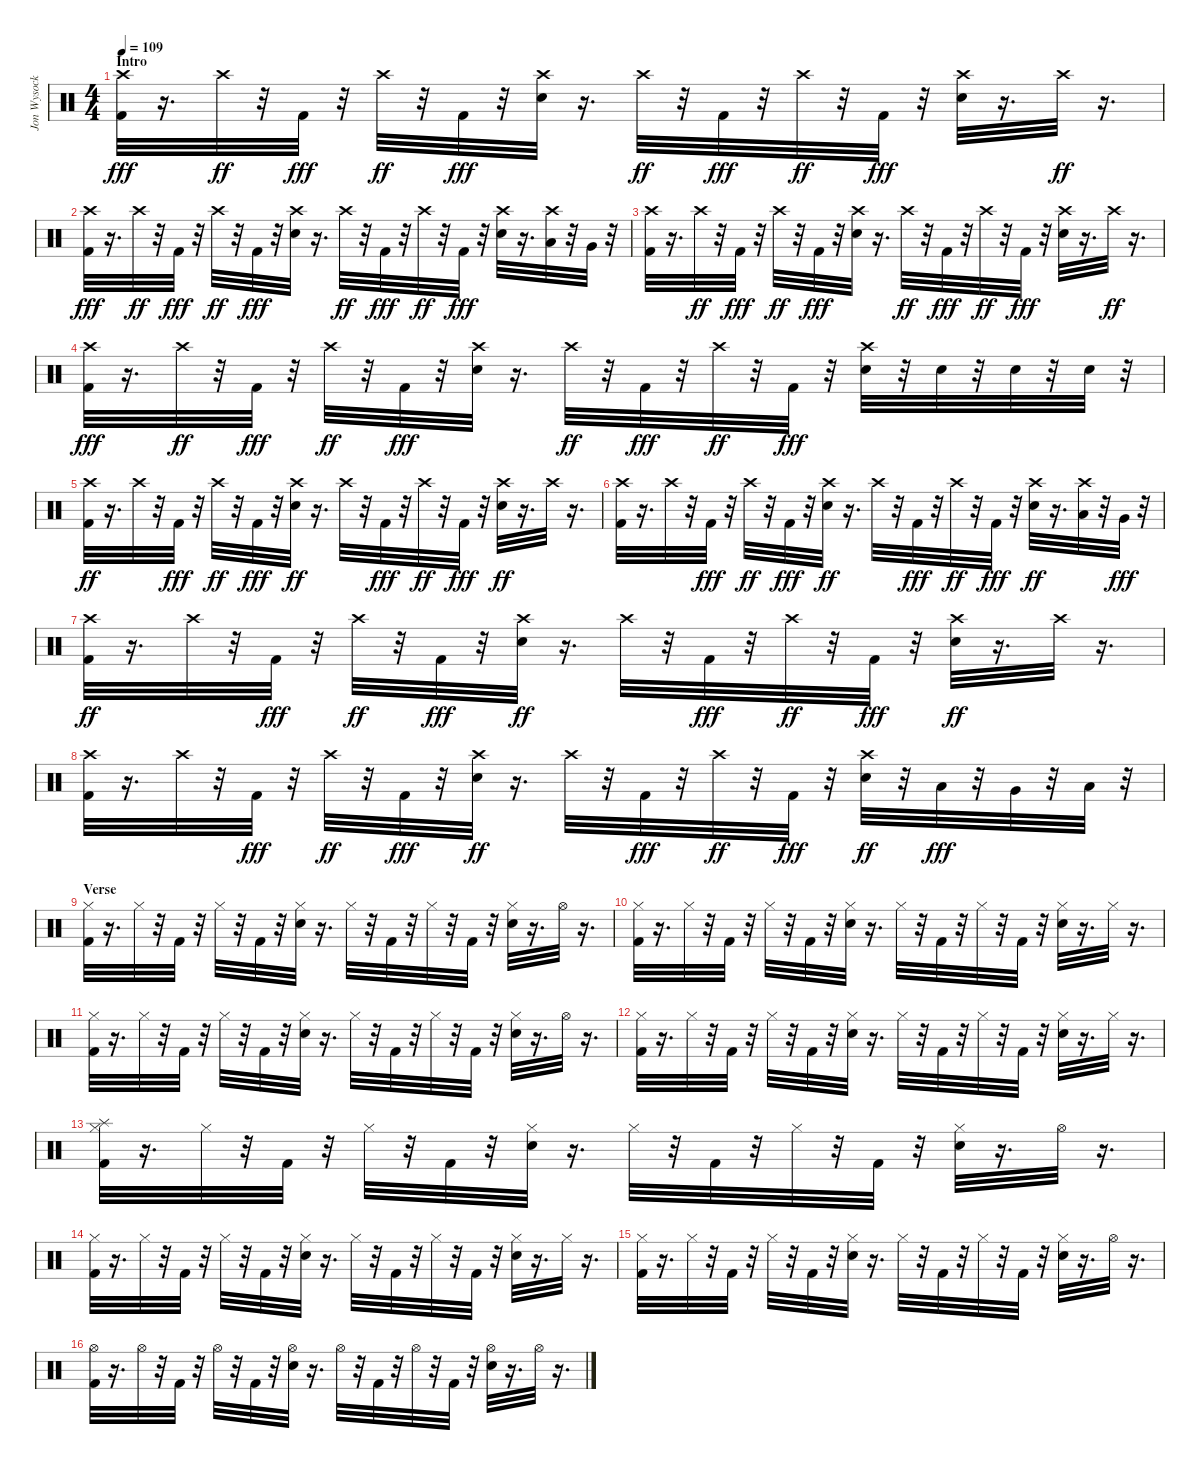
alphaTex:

\track ("Jon Wysocki - Drums" "Jon Wysock") {instrument percussion}
\staff {score}
\articulation defaults
\ts (4 4)
\section ("" "Intro")
\tempo 109
\clef neutral
\ks c
("Crash high (hit)" "Kick (hit) 2").32{dy fff} r.16{d} "Crash high (hit)".32{dy ff} r.32 "Kick (hit) 2".32{dy fff} r.32 "Crash high (hit)".32{dy ff} r.32 "Kick (hit) 2".32{dy fff} r.32 ("Crash high (hit)" "Electric Snare (hit)").32 r.16{d} "Crash high (hit)".32{dy ff} r.32 "Kick (hit) 2".32{dy fff} r.32 "Crash high (hit)".32{dy ff} r.32 "Kick (hit) 2".32{dy fff} r.32 ("Crash high (hit)" "Electric Snare (hit)").32 r.16{d} "Crash high (hit)".32{dy ff} r.16{d} |
("Crash high (hit)" "Kick (hit) 2").32{dy fff} r.16{d} "Crash high (hit)".32{dy ff} r.32 "Kick (hit) 2".32{dy fff} r.32 "Crash high (hit)".32{dy ff} r.32 "Kick (hit) 2".32{dy fff} r.32 ("Crash high (hit)" "Electric Snare (hit)").32 r.16{d} "Crash high (hit)".32{dy ff} r.32 "Kick (hit) 2".32{dy fff} r.32 "Crash high (hit)".32{dy ff} r.32 "Kick (hit) 2".32{dy fff} r.32 ("Crash high (hit)" "Electric Snare (hit)").32 r.16{d} ("Crash high (hit)" "Low Tom (hit)").32 r.32 "Very Low Tom (hit)".32 r.32 |
("Crash high (hit)" "Kick (hit) 2").32 r.16{d} "Crash high (hit)".32{dy ff} r.32 "Kick (hit) 2".32{dy fff} r.32 "Crash high (hit)".32{dy ff} r.32 "Kick (hit) 2".32{dy fff} r.32 ("Crash high (hit)" "Electric Snare (hit)").32 r.16{d} "Crash high (hit)".32{dy ff} r.32 "Kick (hit) 2".32{dy fff} r.32 "Crash high (hit)".32{dy ff} r.32 "Kick (hit) 2".32{dy fff} r.32 ("Crash high (hit)" "Electric Snare (hit)").32 r.16{d} "Crash high (hit)".32{dy ff} r.16{d} |
("Crash high (hit)" "Kick (hit) 2").32{dy fff} r.16{d} "Crash high (hit)".32{dy ff} r.32 "Kick (hit) 2".32{dy fff} r.32 "Crash high (hit)".32{dy ff} r.32 "Kick (hit) 2".32{dy fff} r.32 ("Crash high (hit)" "Electric Snare (hit)").32 r.16{d} "Crash high (hit)".32{dy ff} r.32 "Kick (hit) 2".32{dy fff} r.32 "Crash high (hit)".32{dy ff} r.32 "Kick (hit) 2".32{dy fff} r.32 ("Crash high (hit)" "Electric Snare (hit)").32 r.32 "Electric Snare (hit)".32 r.32 "Electric Snare (hit)".32 r.32 "Electric Snare (hit)".32 r.32 |
("Kick (hit) 2" "Crash high (hit)").32{dy ff} r.16{d} "Crash high (hit)".32 r.32 "Kick (hit) 2".32{dy fff} r.32 "Crash high (hit)".32{dy ff} r.32 "Kick (hit) 2".32{dy fff} r.32 ("Electric Snare (hit)" "Crash high (hit)").32{dy ff} r.16{d} "Crash high (hit)".32 r.32 "Kick (hit) 2".32{dy fff} r.32 "Crash high (hit)".32{dy ff} r.32 "Kick (hit) 2".32{dy fff} r.32 ("Electric Snare (hit)" "Crash high (hit)").32{dy ff} r.16{d} "Crash high (hit)".32 r.16{d} |
("Kick (hit) 2" "Crash high (hit)").32 r.16{d} "Crash high (hit)".32 r.32 "Kick (hit) 2".32{dy fff} r.32 "Crash high (hit)".32{dy ff} r.32 "Kick (hit) 2".32{dy fff} r.32 ("Electric Snare (hit)" "Crash high (hit)").32{dy ff} r.16{d} "Crash high (hit)".32 r.32 "Kick (hit) 2".32{dy fff} r.32 "Crash high (hit)".32{dy ff} r.32 "Kick (hit) 2".32{dy fff} r.32 ("Electric Snare (hit)" "Crash high (hit)").32{dy ff} r.16{d} ("Low Tom (hit)" "Crash high (hit)").32 r.32 "Very Low Tom (hit)".32{dy fff} r.32 |
("Kick (hit) 2" "Crash high (hit)").32{dy ff} r.16{d} "Crash high (hit)".32 r.32 "Kick (hit) 2".32{dy fff} r.32 "Crash high (hit)".32{dy ff} r.32 "Kick (hit) 2".32{dy fff} r.32 ("Electric Snare (hit)" "Crash high (hit)").32{dy ff} r.16{d} "Crash high (hit)".32 r.32 "Kick (hit) 2".32{dy fff} r.32 "Crash high (hit)".32{dy ff} r.32 "Kick (hit) 2".32{dy fff} r.32 ("Electric Snare (hit)" "Crash high (hit)").32{dy ff} r.16{d} "Crash high (hit)".32 r.16{d} |
("Kick (hit) 2" "Crash high (hit)").32 r.16{d} "Crash high (hit)".32 r.32 "Kick (hit) 2".32{dy fff} r.32 "Crash high (hit)".32{dy ff} r.32 "Kick (hit) 2".32{dy fff} r.32 ("Electric Snare (hit)" "Crash high (hit)").32{dy ff} r.16{d} "Crash high (hit)".32 r.32 "Kick (hit) 2".32{dy fff} r.32 "Crash high (hit)".32{dy ff} r.32 "Kick (hit) 2".32{dy fff} r.32 ("Electric Snare (hit)" "Crash high (hit)").32{dy ff} r.32 "Low Tom (hit)".32{dy fff} r.32 "Very Low Tom (hit)".32 r.32 "Low Floor Tom (hit)".32 r.32 |
\section ("" "Verse")
("Hi-Hat (closed)" "Kick (hit) 2").32 r.16{d} "Hi-Hat (closed)".32 r.32 "Kick (hit) 2".32 r.32 "Hi-Hat (closed)".32 r.32 "Kick (hit) 2".32 r.32 ("Hi-Hat (closed)" "Electric Snare (hit)").32 r.16{d} "Hi-Hat (closed)".32 r.32 "Kick (hit) 2".32 r.32 "Hi-Hat (closed)".32 r.32 "Kick (hit) 2".32 r.32 ("Hi-Hat (closed)" "Electric Snare (hit)").32 r.16{d} "Hi-Hat (open)".32 r.16{d} |
("Hi-Hat (closed)" "Kick (hit) 2").32 r.16{d} "Hi-Hat (closed)".32 r.32 "Kick (hit) 2".32 r.32 "Hi-Hat (closed)".32 r.32 "Kick (hit) 2".32 r.32 ("Hi-Hat (closed)" "Electric Snare (hit)").32 r.16{d} "Hi-Hat (closed)".32 r.32 "Kick (hit) 2".32 r.32 "Hi-Hat (closed)".32 r.32 "Kick (hit) 2".32 r.32 ("Hi-Hat (closed)" "Electric Snare (hit)").32 r.16{d} "Hi-Hat (closed)".32 r.16{d} |
("Kick (hit) 2" "Hi-Hat (closed)").32 r.16{d} "Hi-Hat (closed)".32 r.32 "Kick (hit) 2".32 r.32 "Hi-Hat (closed)".32 r.32 "Kick (hit) 2".32 r.32 ("Electric Snare (hit)" "Hi-Hat (closed)").32 r.16{d} "Hi-Hat (closed)".32 r.32 "Kick (hit) 2".32 r.32 "Hi-Hat (closed)".32 r.32 "Kick (hit) 2".32 r.32 ("Electric Snare (hit)" "Hi-Hat (closed)").32 r.16{d} "Hi-Hat (open)".32 r.16{d} |
("Kick (hit) 2" "Hi-Hat (closed)").32 r.16{d} "Hi-Hat (closed)".32 r.32 "Kick (hit) 2".32 r.32 "Hi-Hat (closed)".32 r.32 "Kick (hit) 2".32 r.32 ("Electric Snare (hit)" "Hi-Hat (closed)").32 r.16{d} "Hi-Hat (closed)".32 r.32 "Kick (hit) 2".32 r.32 "Hi-Hat (closed)".32 r.32 "Kick (hit) 2".32 r.32 ("Electric Snare (hit)" "Hi-Hat (closed)").32 r.16{d} "Hi-Hat (closed)".32 r.16{d} |
("Splash (hit)" "Kick (hit) 2" "Hi-Hat (closed)").32 r.16{d} "Hi-Hat (closed)".32 r.32 "Kick (hit) 2".32 r.32 "Hi-Hat (closed)".32 r.32 "Kick (hit) 2".32 r.32 ("Electric Snare (hit)" "Hi-Hat (closed)").32 r.16{d} "Hi-Hat (closed)".32 r.32 "Kick (hit) 2".32 r.32 "Hi-Hat (closed)".32 r.32 "Kick (hit) 2".32 r.32 ("Electric Snare (hit)" "Hi-Hat (closed)").32 r.16{d} "Hi-Hat (open)".32 r.16{d} |
("Kick (hit) 2" "Hi-Hat (closed)").32 r.16{d} "Hi-Hat (closed)".32 r.32 "Kick (hit) 2".32 r.32 "Hi-Hat (closed)".32 r.32 "Kick (hit) 2".32 r.32 ("Electric Snare (hit)" "Hi-Hat (closed)").32 r.16{d} "Hi-Hat (closed)".32 r.32 "Kick (hit) 2".32 r.32 "Hi-Hat (closed)".32 r.32 "Kick (hit) 2".32 r.32 ("Electric Snare (hit)" "Hi-Hat (closed)").32 r.16{d} "Hi-Hat (closed)".32 r.16{d} |
("Hi-Hat (closed)" "Kick (hit) 2").32 r.16{d} "Hi-Hat (closed)".32 r.32 "Kick (hit) 2".32 r.32 "Hi-Hat (closed)".32 r.32 "Kick (hit) 2".32 r.32 ("Hi-Hat (closed)" "Electric Snare (hit)").32 r.16{d} "Hi-Hat (closed)".32 r.32 "Kick (hit) 2".32 r.32 "Hi-Hat (closed)".32 r.32 "Kick (hit) 2".32 r.32 ("Hi-Hat (closed)" "Electric Snare (hit)").32 r.16{d} "Hi-Hat (open)".32 r.16{d} |
("Hi-Hat (open)" "Kick (hit) 2").32 r.16{d} "Hi-Hat (open)".32 r.32 "Kick (hit) 2".32 r.32 "Hi-Hat (open)".32 r.32 "Kick (hit) 2".32 r.32 ("Hi-Hat (open)" "Electric Snare (hit)").32 r.16{d} "Hi-Hat (open)".32 r.32 "Kick (hit) 2".32 r.32 "Hi-Hat (open)".32 r.32 "Kick (hit) 2".32 r.32 ("Hi-Hat (open)" "Electric Snare (hit)").32 r.16{d} "Hi-Hat (open)".32 r.16{d}
